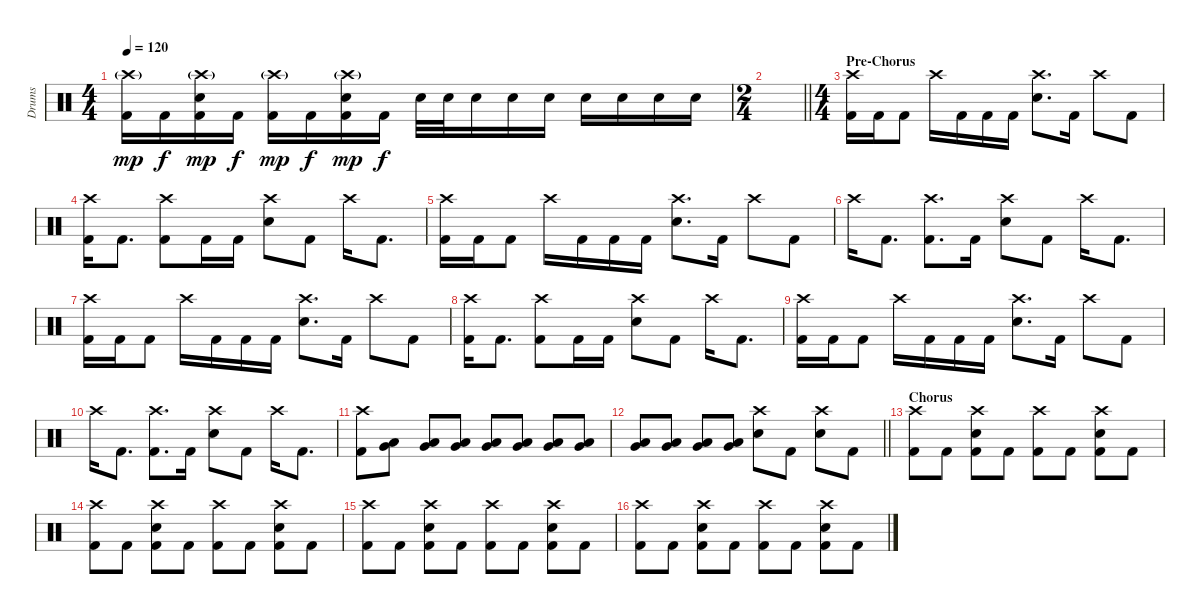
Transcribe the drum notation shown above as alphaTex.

\track ("Drums" "Drums") {instrument percussion}
\staff {score}
\articulation defaults
\ts (4 4)
\tempo 120
\clef neutral
\ks c
("Crash high (hit)"{g} "Kick (hit) 2").16{dy mp} "Kick (hit) 2".16{dy f} ("Crash high (hit)"{g} "Electric Snare (hit)" "Kick (hit) 2").16{dy mp} "Kick (hit) 2".16{dy f} ("Crash high (hit)"{g} "Kick (hit) 2").16{dy mp} "Kick (hit) 2".16{dy f} ("Crash high (hit)"{g} "Electric Snare (hit)" "Kick (hit) 2").16{dy mp} "Kick (hit) 2".16{dy f} "Electric Snare (hit)".32 "Electric Snare (hit)".32 "Electric Snare (hit)".16 "Electric Snare (hit)".16 "Electric Snare (hit)".16 "Electric Snare (hit)".16 "Electric Snare (hit)".16 "Electric Snare (hit)".16 "Electric Snare (hit)".16 |
\ts (2 4)
\barLineRight lightlight
|
\ts (4 4)
\section ("" "Pre-Chorus")
("Crash high (hit)" "Kick (hit) 2").16 "Kick (hit) 2".16 "Kick (hit) 2".8 "Crash high (hit)".16 "Kick (hit) 2".16 "Kick (hit) 2".16 "Kick (hit) 2".16 ("Crash high (hit)" "Electric Snare (hit)").8{d} "Kick (hit) 2".16 "Crash high (hit)".8 "Kick (hit) 2".8 |
("Crash high (hit)" "Kick (hit) 2").16 "Kick (hit) 2".8{d} ("Crash high (hit)" "Kick (hit) 2").8 "Kick (hit) 2".16 "Kick (hit) 2".16 ("Crash high (hit)" "Electric Snare (hit)").8 "Kick (hit) 2".8 "Crash high (hit)".16 "Kick (hit) 2".8{d} |
("Crash high (hit)" "Kick (hit) 2").16 "Kick (hit) 2".16 "Kick (hit) 2".8 "Crash high (hit)".16 "Kick (hit) 2".16 "Kick (hit) 2".16 "Kick (hit) 2".16 ("Crash high (hit)" "Electric Snare (hit)").8{d} "Kick (hit) 2".16 "Crash high (hit)".8 "Kick (hit) 2".8 |
"Crash high (hit)".16 "Kick (hit) 2".8{d} ("Crash high (hit)" "Kick (hit) 2").8{d} "Kick (hit) 2".16 ("Crash high (hit)" "Electric Snare (hit)").8 "Kick (hit) 2".8 "Crash high (hit)".16 "Kick (hit) 2".8{d} |
("Crash high (hit)" "Kick (hit) 2").16 "Kick (hit) 2".16 "Kick (hit) 2".8 "Crash high (hit)".16 "Kick (hit) 2".16 "Kick (hit) 2".16 "Kick (hit) 2".16 ("Crash high (hit)" "Electric Snare (hit)").8{d} "Kick (hit) 2".16 "Crash high (hit)".8 "Kick (hit) 2".8 |
("Crash high (hit)" "Kick (hit) 2").16 "Kick (hit) 2".8{d} ("Crash high (hit)" "Kick (hit) 2").8 "Kick (hit) 2".16 "Kick (hit) 2".16 ("Crash high (hit)" "Electric Snare (hit)").8 "Kick (hit) 2".8 "Crash high (hit)".16 "Kick (hit) 2".8{d} |
("Crash high (hit)" "Kick (hit) 2").16 "Kick (hit) 2".16 "Kick (hit) 2".8 "Crash high (hit)".16 "Kick (hit) 2".16 "Kick (hit) 2".16 "Kick (hit) 2".16 ("Crash high (hit)" "Electric Snare (hit)").8{d} "Kick (hit) 2".16 "Crash high (hit)".8 "Kick (hit) 2".8 |
"Crash high (hit)".16 "Kick (hit) 2".8{d} ("Crash high (hit)" "Kick (hit) 2").8{d} "Kick (hit) 2".16 ("Crash high (hit)" "Electric Snare (hit)").8 "Kick (hit) 2".8 "Crash high (hit)".16 "Kick (hit) 2".8{d} |
("Crash high (hit)" "Kick (hit) 2").8 ("Very Low Tom (hit)" "Low Floor Tom (hit)").8{volume 0} ("Very Low Tom (hit)" "Low Floor Tom (hit)").8{volume 12} ("Very Low Tom (hit)" "Low Floor Tom (hit)").8 ("Very Low Tom (hit)" "Low Floor Tom (hit)").8 ("Very Low Tom (hit)" "Low Floor Tom (hit)").8 ("Very Low Tom (hit)" "Low Floor Tom (hit)").8 ("Very Low Tom (hit)" "Low Floor Tom (hit)").8 |
\barLineRight lightlight
("Very Low Tom (hit)" "Low Floor Tom (hit)").8 ("Very Low Tom (hit)" "Low Floor Tom (hit)").8 ("Very Low Tom (hit)" "Low Floor Tom (hit)").8 ("Very Low Tom (hit)" "Low Floor Tom (hit)").8 ("Crash high (hit)" "Electric Snare (hit)").8 "Kick (hit) 2".8 ("Crash high (hit)" "Electric Snare (hit)").8 "Kick (hit) 2".8 |
\section ("" "Chorus")
("Crash high (hit)" "Kick (hit) 2").8 "Kick (hit) 2".8 ("Crash high (hit)" "Electric Snare (hit)" "Kick (hit) 2").8 "Kick (hit) 2".8 ("Crash high (hit)" "Kick (hit) 2").8 "Kick (hit) 2".8 ("Crash high (hit)" "Electric Snare (hit)" "Kick (hit) 2").8 "Kick (hit) 2".8 |
("Crash high (hit)" "Kick (hit) 2").8 "Kick (hit) 2".8 ("Crash high (hit)" "Electric Snare (hit)" "Kick (hit) 2").8 "Kick (hit) 2".8 ("Crash high (hit)" "Kick (hit) 2").8 "Kick (hit) 2".8 ("Crash high (hit)" "Electric Snare (hit)" "Kick (hit) 2").8 "Kick (hit) 2".8 |
("Crash high (hit)" "Kick (hit) 2").8 "Kick (hit) 2".8 ("Crash high (hit)" "Electric Snare (hit)" "Kick (hit) 2").8 "Kick (hit) 2".8 ("Crash high (hit)" "Kick (hit) 2").8 "Kick (hit) 2".8 ("Crash high (hit)" "Electric Snare (hit)" "Kick (hit) 2").8 "Kick (hit) 2".8 |
("Crash high (hit)" "Kick (hit) 2").8 "Kick (hit) 2".8 ("Crash high (hit)" "Electric Snare (hit)" "Kick (hit) 2").8 "Kick (hit) 2".8 ("Crash high (hit)" "Kick (hit) 2").8 "Kick (hit) 2".8 ("Crash high (hit)" "Electric Snare (hit)" "Kick (hit) 2").8 "Kick (hit) 2".8
